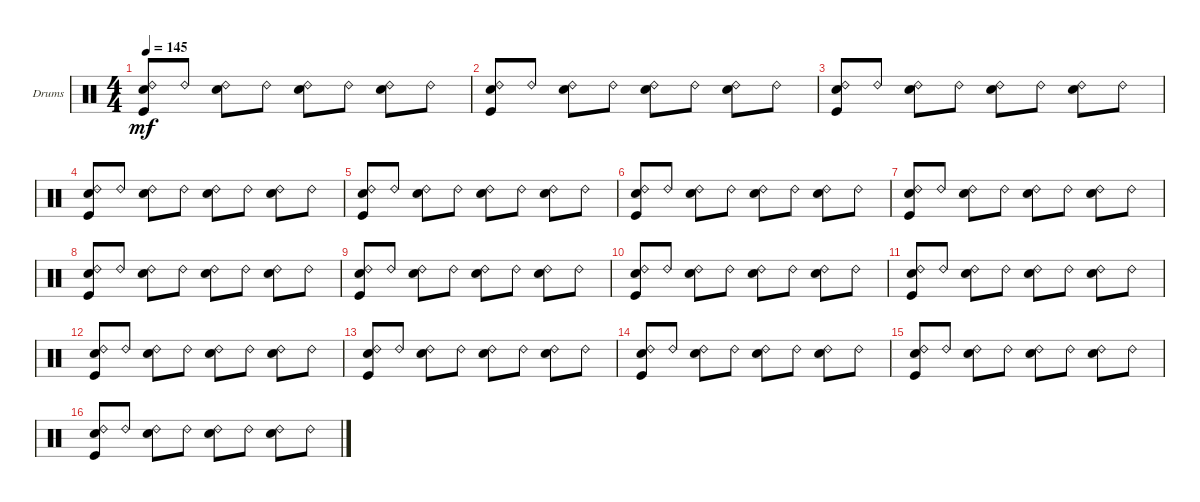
\bracketExtendMode groupsimilarinstruments
\firstSystemTrackNameOrientation horizontal
\otherSystemsTrackNameOrientation horizontal
\track ("Drumkit" "Drums") {instrument percussion}
\staff {score}
\articulation defaults
\ts (4 4)
\tempo 145
\clef neutral
\ks c
("Kick (hit)" "Snare (hit) 2" "Ride (bell) 2").8{dy mf} "Ride (bell) 2".8 ("Snare (hit) 2" "Ride (bell) 2").8 "Ride (bell) 2".8 ("Snare (hit) 2" "Ride (bell) 2").8 "Ride (bell) 2".8 ("Snare (hit) 2" "Ride (bell) 2").8 "Ride (bell) 2".8 |
("Kick (hit)" "Snare (hit) 2" "Ride (bell) 2").8 "Ride (bell) 2".8 ("Snare (hit) 2" "Ride (bell) 2").8 "Ride (bell) 2".8 ("Snare (hit) 2" "Ride (bell) 2").8 "Ride (bell) 2".8 ("Snare (hit) 2" "Ride (bell) 2").8 "Ride (bell) 2".8 |
("Kick (hit)" "Snare (hit) 2" "Ride (bell) 2").8 "Ride (bell) 2".8 ("Snare (hit) 2" "Ride (bell) 2").8 "Ride (bell) 2".8 ("Snare (hit) 2" "Ride (bell) 2").8 "Ride (bell) 2".8 ("Snare (hit) 2" "Ride (bell) 2").8 "Ride (bell) 2".8 |
("Kick (hit)" "Snare (hit) 2" "Ride (bell) 2").8 "Ride (bell) 2".8 ("Snare (hit) 2" "Ride (bell) 2").8 "Ride (bell) 2".8 ("Snare (hit) 2" "Ride (bell) 2").8 "Ride (bell) 2".8 ("Snare (hit) 2" "Ride (bell) 2").8 "Ride (bell) 2".8 |
("Kick (hit)" "Snare (hit) 2" "Ride (bell) 2").8 "Ride (bell) 2".8 ("Snare (hit) 2" "Ride (bell) 2").8 "Ride (bell) 2".8 ("Snare (hit) 2" "Ride (bell) 2").8 "Ride (bell) 2".8 ("Snare (hit) 2" "Ride (bell) 2").8 "Ride (bell) 2".8 |
("Kick (hit)" "Snare (hit) 2" "Ride (bell) 2").8 "Ride (bell) 2".8 ("Snare (hit) 2" "Ride (bell) 2").8 "Ride (bell) 2".8 ("Snare (hit) 2" "Ride (bell) 2").8 "Ride (bell) 2".8 ("Snare (hit) 2" "Ride (bell) 2").8 "Ride (bell) 2".8 |
("Kick (hit)" "Snare (hit) 2" "Ride (bell) 2").8 "Ride (bell) 2".8 ("Snare (hit) 2" "Ride (bell) 2").8 "Ride (bell) 2".8 ("Snare (hit) 2" "Ride (bell) 2").8 "Ride (bell) 2".8 ("Snare (hit) 2" "Ride (bell) 2").8 "Ride (bell) 2".8 |
("Kick (hit)" "Snare (hit) 2" "Ride (bell) 2").8 "Ride (bell) 2".8 ("Snare (hit) 2" "Ride (bell) 2").8 "Ride (bell) 2".8 ("Snare (hit) 2" "Ride (bell) 2").8 "Ride (bell) 2".8 ("Snare (hit) 2" "Ride (bell) 2").8 "Ride (bell) 2".8 |
("Kick (hit)" "Snare (hit) 2" "Ride (bell) 2").8 "Ride (bell) 2".8 ("Snare (hit) 2" "Ride (bell) 2").8 "Ride (bell) 2".8 ("Snare (hit) 2" "Ride (bell) 2").8 "Ride (bell) 2".8 ("Snare (hit) 2" "Ride (bell) 2").8 "Ride (bell) 2".8 |
("Kick (hit)" "Snare (hit) 2" "Ride (bell) 2").8 "Ride (bell) 2".8 ("Snare (hit) 2" "Ride (bell) 2").8 "Ride (bell) 2".8 ("Snare (hit) 2" "Ride (bell) 2").8 "Ride (bell) 2".8 ("Snare (hit) 2" "Ride (bell) 2").8 "Ride (bell) 2".8 |
("Kick (hit)" "Snare (hit) 2" "Ride (bell) 2").8 "Ride (bell) 2".8 ("Snare (hit) 2" "Ride (bell) 2").8 "Ride (bell) 2".8 ("Snare (hit) 2" "Ride (bell) 2").8 "Ride (bell) 2".8 ("Snare (hit) 2" "Ride (bell) 2").8 "Ride (bell) 2".8 |
("Kick (hit)" "Snare (hit) 2" "Ride (bell) 2").8 "Ride (bell) 2".8 ("Snare (hit) 2" "Ride (bell) 2").8 "Ride (bell) 2".8 ("Snare (hit) 2" "Ride (bell) 2").8 "Ride (bell) 2".8 ("Snare (hit) 2" "Ride (bell) 2").8 "Ride (bell) 2".8 |
("Kick (hit)" "Snare (hit) 2" "Ride (bell) 2").8 "Ride (bell) 2".8 ("Snare (hit) 2" "Ride (bell) 2").8 "Ride (bell) 2".8 ("Snare (hit) 2" "Ride (bell) 2").8 "Ride (bell) 2".8 ("Snare (hit) 2" "Ride (bell) 2").8 "Ride (bell) 2".8 |
("Kick (hit)" "Snare (hit) 2" "Ride (bell) 2").8 "Ride (bell) 2".8 ("Snare (hit) 2" "Ride (bell) 2").8 "Ride (bell) 2".8 ("Snare (hit) 2" "Ride (bell) 2").8 "Ride (bell) 2".8 ("Snare (hit) 2" "Ride (bell) 2").8 "Ride (bell) 2".8 |
("Kick (hit)" "Snare (hit) 2" "Ride (bell) 2").8 "Ride (bell) 2".8 ("Snare (hit) 2" "Ride (bell) 2").8 "Ride (bell) 2".8 ("Snare (hit) 2" "Ride (bell) 2").8 "Ride (bell) 2".8 ("Snare (hit) 2" "Ride (bell) 2").8 "Ride (bell) 2".8 |
("Kick (hit)" "Snare (hit) 2" "Ride (bell) 2").8 "Ride (bell) 2".8 ("Snare (hit) 2" "Ride (bell) 2").8 "Ride (bell) 2".8 ("Snare (hit) 2" "Ride (bell) 2").8 "Ride (bell) 2".8 ("Snare (hit) 2" "Ride (bell) 2").8 "Ride (bell) 2".8
